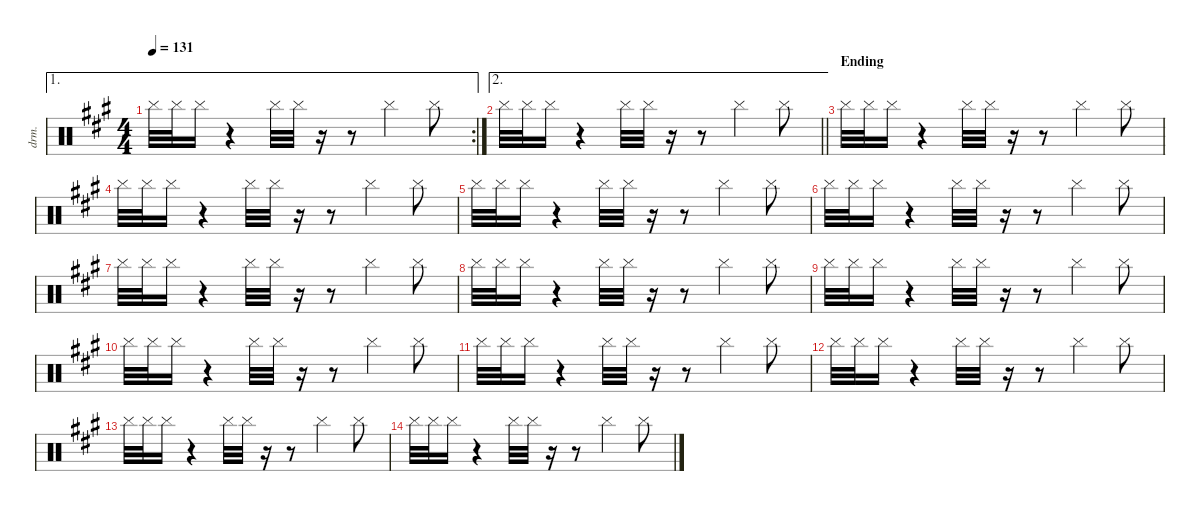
\defaultSystemsLayout 4
\hideDynamics
\bracketExtendMode nobrackets
\otherSystemsTrackNameOrientation horizontal
\track ("Scratchpad" "drm.") {defaultSystemsLayout 8 instrument percussion}
\staff {score}
\articulation defaults
\ae 1
\rc 2
\ts (4 4)
\tempo 131
\clef neutral
\ks f#minor "Cymbal (hit)"{acc forcenatural}.32{dy mf beam Down} "Cymbal (hit)"{acc forcenatural}.32{beam Down} "Cymbal (hit)"{acc forcenatural}.16{beam Down}
r.4{beam Down} "Cymbal (hit)"{acc forcenatural}.32{beam Down} "Cymbal (hit)"{acc forcenatural}.32{beam Down} r.16{beam Down} r.8{beam Down} "Cymbal (hit)"{acc forcenatural}.4{beam Down} "Cymbal (hit)"{acc forcenatural}.8{beam Down} |
\ae 2
\barLineRight lightlight "Cymbal (hit)"{acc forcenatural}.32{beam Down} "Cymbal (hit)"{acc forcenatural}.32{beam Down} "Cymbal (hit)"{acc forcenatural}.16{beam Down}
r.4{beam Down} "Cymbal (hit)"{acc forcenatural}.32{beam Down} "Cymbal (hit)"{acc forcenatural}.32{beam Down} r.16{beam Down} r.8{beam Down} "Cymbal (hit)"{acc forcenatural}.4{beam Down} "Cymbal (hit)"{acc forcenatural}.8{beam Down} |
\section ("" "Ending")
"Cymbal (hit)"{acc forcenatural}.32{beam Down} "Cymbal (hit)"{acc forcenatural}.32{beam Down} "Cymbal (hit)"{acc forcenatural}.16{beam Down} r.4{beam Down} "Cymbal (hit)"{acc forcenatural}.32{beam Down} "Cymbal (hit)"{acc forcenatural}.32{beam Down} r.16{beam Down} r.8{beam Down} "Cymbal (hit)"{acc forcenatural}.4{beam Down} "Cymbal (hit)"{acc forcenatural}.8{beam Down} |
"Cymbal (hit)"{acc forcenatural}.32{beam Down} "Cymbal (hit)"{acc forcenatural}.32{beam Down} "Cymbal (hit)"{acc forcenatural}.16{beam Down} r.4{beam Down} "Cymbal (hit)"{acc forcenatural}.32{beam Down} "Cymbal (hit)"{acc forcenatural}.32{beam Down} r.16{beam Down} r.8{beam Down} "Cymbal (hit)"{acc forcenatural}.4{beam Down} "Cymbal (hit)"{acc forcenatural}.8{beam Down} |
"Cymbal (hit)"{acc forcenatural}.32{beam Down} "Cymbal (hit)"{acc forcenatural}.32{beam Down} "Cymbal (hit)"{acc forcenatural}.16{beam Down} r.4{beam Down} "Cymbal (hit)"{acc forcenatural}.32{beam Down} "Cymbal (hit)"{acc forcenatural}.32{beam Down} r.16{beam Down} r.8{beam Down} "Cymbal (hit)"{acc forcenatural}.4{beam Down} "Cymbal (hit)"{acc forcenatural}.8{beam Down} |
"Cymbal (hit)"{acc forcenatural}.32{beam Down} "Cymbal (hit)"{acc forcenatural}.32{beam Down} "Cymbal (hit)"{acc forcenatural}.16{beam Down} r.4{beam Down} "Cymbal (hit)"{acc forcenatural}.32{beam Down} "Cymbal (hit)"{acc forcenatural}.32{beam Down} r.16{beam Down} r.8{beam Down} "Cymbal (hit)"{acc forcenatural}.4{beam Down} "Cymbal (hit)"{acc forcenatural}.8{beam Down} |
"Cymbal (hit)"{acc forcenatural}.32{beam Down} "Cymbal (hit)"{acc forcenatural}.32{beam Down} "Cymbal (hit)"{acc forcenatural}.16{beam Down} r.4{beam Down} "Cymbal (hit)"{acc forcenatural}.32{beam Down} "Cymbal (hit)"{acc forcenatural}.32{beam Down} r.16{beam Down} r.8{beam Down} "Cymbal (hit)"{acc forcenatural}.4{beam Down} "Cymbal (hit)"{acc forcenatural}.8{beam Down} |
"Cymbal (hit)"{acc forcenatural}.32{dy mp beam Down} "Cymbal (hit)"{acc forcenatural}.32{beam Down} "Cymbal (hit)"{acc forcenatural}.16{beam Down} r.4{beam Down} "Cymbal (hit)"{acc forcenatural}.32{beam Down} "Cymbal (hit)"{acc forcenatural}.32{beam Down} r.16{beam Down} r.8{beam Down} "Cymbal (hit)"{acc forcenatural}.4{beam Down} "Cymbal (hit)"{acc forcenatural}.8{beam Down} |
"Cymbal (hit)"{acc forcenatural}.32{dy mf beam Down} "Cymbal (hit)"{acc forcenatural}.32{beam Down} "Cymbal (hit)"{acc forcenatural}.16{beam Down} r.4{beam Down} "Cymbal (hit)"{acc forcenatural}.32{beam Down} "Cymbal (hit)"{acc forcenatural}.32{beam Down} r.16{beam Down} r.8{beam Down} "Cymbal (hit)"{acc forcenatural}.4{beam Down} "Cymbal (hit)"{acc forcenatural}.8{beam Down} |
"Cymbal (hit)"{acc forcenatural}.32{beam Down} "Cymbal (hit)"{acc forcenatural}.32{beam Down} "Cymbal (hit)"{acc forcenatural}.16{beam Down} r.4{beam Down} "Cymbal (hit)"{acc forcenatural}.32{beam Down} "Cymbal (hit)"{acc forcenatural}.32{beam Down} r.16{beam Down} r.8{beam Down} "Cymbal (hit)"{acc forcenatural}.4{beam Down} "Cymbal (hit)"{acc forcenatural}.8{beam Down} |
"Cymbal (hit)"{acc forcenatural}.32{beam Down} "Cymbal (hit)"{acc forcenatural}.32{beam Down} "Cymbal (hit)"{acc forcenatural}.16{beam Down} r.4{beam Down} "Cymbal (hit)"{acc forcenatural}.32{beam Down} "Cymbal (hit)"{acc forcenatural}.32{beam Down} r.16{beam Down} r.8{beam Down} "Cymbal (hit)"{acc forcenatural}.4{beam Down} "Cymbal (hit)"{acc forcenatural}.8{beam Down} |
"Cymbal (hit)"{acc forcenatural}.32{beam Down} "Cymbal (hit)"{acc forcenatural}.32{beam Down} "Cymbal (hit)"{acc forcenatural}.16{beam Down} r.4{beam Down} "Cymbal (hit)"{acc forcenatural}.32{beam Down} "Cymbal (hit)"{acc forcenatural}.32{beam Down} r.16{beam Down} r.8{beam Down} "Cymbal (hit)"{acc forcenatural}.4{beam Down} "Cymbal (hit)"{acc forcenatural}.8{beam Down} |
"Cymbal (hit)"{acc forcenatural}.32{beam Down} "Cymbal (hit)"{acc forcenatural}.32{beam Down} "Cymbal (hit)"{acc forcenatural}.16{beam Down} r.4{beam Down} "Cymbal (hit)"{acc forcenatural}.32{beam Down} "Cymbal (hit)"{acc forcenatural}.32{beam Down} r.16{beam Down} r.8{beam Down} "Cymbal (hit)"{acc forcenatural}.4{beam Down} "Cymbal (hit)"{acc forcenatural}.8{beam Down} |
"Cymbal (hit)"{acc forcenatural}.32{beam Down} "Cymbal (hit)"{acc forcenatural}.32{beam Down} "Cymbal (hit)"{acc forcenatural}.16{beam Down} r.4{beam Down} "Cymbal (hit)"{acc forcenatural}.32{beam Down} "Cymbal (hit)"{acc forcenatural}.32{beam Down} r.16{beam Down} r.8{beam Down} "Cymbal (hit)"{acc forcenatural}.4{beam Down} "Cymbal (hit)"{acc forcenatural}.8{beam Down}
